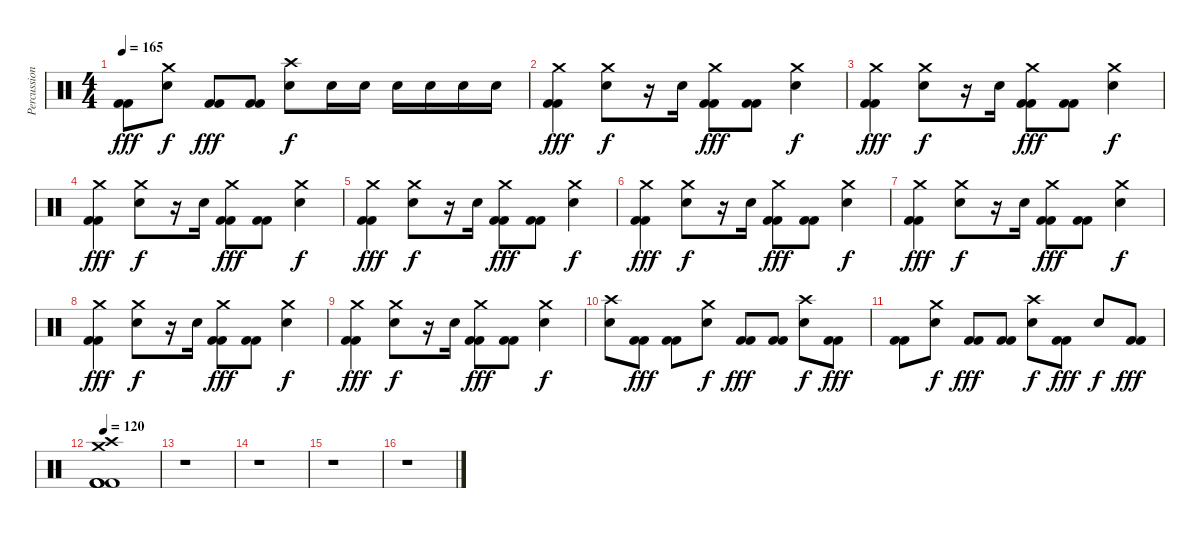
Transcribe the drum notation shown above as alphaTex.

\track ("Percussions" "Percussion") {instrument percussion}
\staff {score}
\articulation defaults
\ts (4 4)
\tempo 165
\clef neutral
\ks c
("Kick (hit) 2" "Kick (hit) 2").8{dy fff} ("Crash medium (hit)" "Electric Snare (hit)").8{dy f} ("Kick (hit) 2" "Kick (hit) 2").8{dy fff} ("Kick (hit) 2" "Kick (hit) 2").8 ("Crash high (hit)" "Electric Snare (hit)").8{dy f} "Electric Snare (hit)".16 "Electric Snare (hit)".16 "Electric Snare (hit)".16 "Electric Snare (hit)".16 "Electric Snare (hit)".16 "Electric Snare (hit)".16 |
("Crash medium (hit)" "Kick (hit) 2" "Kick (hit) 2").4{dy fff} ("Crash medium (hit)" "Electric Snare (hit)").8{dy f} r.16 "Electric Snare (hit)".16 ("Crash medium (hit)" "Kick (hit) 2" "Kick (hit) 2").8{dy fff} ("Kick (hit) 2" "Kick (hit) 2").8 ("Crash medium (hit)" "Electric Snare (hit)").4{dy f} |
("Crash medium (hit)" "Kick (hit) 2" "Kick (hit) 2").4{dy fff} ("Crash medium (hit)" "Electric Snare (hit)").8{dy f} r.16 "Electric Snare (hit)".16 ("Crash medium (hit)" "Kick (hit) 2" "Kick (hit) 2").8{dy fff} ("Kick (hit) 2" "Kick (hit) 2").8 ("Crash medium (hit)" "Electric Snare (hit)").4{dy f} |
("Crash medium (hit)" "Kick (hit) 2" "Kick (hit) 2").4{dy fff} ("Crash medium (hit)" "Electric Snare (hit)").8{dy f} r.16 "Electric Snare (hit)".16 ("Crash medium (hit)" "Kick (hit) 2" "Kick (hit) 2").8{dy fff} ("Kick (hit) 2" "Kick (hit) 2").8 ("Crash medium (hit)" "Electric Snare (hit)").4{dy f} |
("Crash medium (hit)" "Kick (hit) 2" "Kick (hit) 2").4{dy fff} ("Crash medium (hit)" "Electric Snare (hit)").8{dy f} r.16 "Electric Snare (hit)".16 ("Crash medium (hit)" "Kick (hit) 2" "Kick (hit) 2").8{dy fff} ("Kick (hit) 2" "Kick (hit) 2").8 ("Crash medium (hit)" "Electric Snare (hit)").4{dy f} |
("Crash medium (hit)" "Kick (hit) 2" "Kick (hit) 2").4{dy fff} ("Crash medium (hit)" "Electric Snare (hit)").8{dy f} r.16 "Electric Snare (hit)".16 ("Crash medium (hit)" "Kick (hit) 2" "Kick (hit) 2").8{dy fff} ("Kick (hit) 2" "Kick (hit) 2").8 ("Crash medium (hit)" "Electric Snare (hit)").4{dy f} |
("Crash medium (hit)" "Kick (hit) 2" "Kick (hit) 2").4{dy fff} ("Crash medium (hit)" "Electric Snare (hit)").8{dy f} r.16 "Electric Snare (hit)".16 ("Crash medium (hit)" "Kick (hit) 2" "Kick (hit) 2").8{dy fff} ("Kick (hit) 2" "Kick (hit) 2").8 ("Crash medium (hit)" "Electric Snare (hit)").4{dy f} |
("Crash medium (hit)" "Kick (hit) 2" "Kick (hit) 2").4{dy fff} ("Crash medium (hit)" "Electric Snare (hit)").8{dy f} r.16 "Electric Snare (hit)".16 ("Crash medium (hit)" "Kick (hit) 2" "Kick (hit) 2").8{dy fff} ("Kick (hit) 2" "Kick (hit) 2").8 ("Crash medium (hit)" "Electric Snare (hit)").4{dy f} |
("Crash medium (hit)" "Kick (hit) 2" "Kick (hit) 2").4{dy fff} ("Crash medium (hit)" "Electric Snare (hit)").8{dy f} r.16 "Electric Snare (hit)".16 ("Crash medium (hit)" "Kick (hit) 2" "Kick (hit) 2").8{dy fff} ("Kick (hit) 2" "Kick (hit) 2").8 ("Crash medium (hit)" "Electric Snare (hit)").4{dy f} |
("Crash high (hit)" "Electric Snare (hit)").8 ("Kick (hit) 2" "Kick (hit) 2").8{dy fff} ("Kick (hit) 2" "Kick (hit) 2").8 ("Crash medium (hit)" "Electric Snare (hit)").8{dy f} ("Kick (hit) 2" "Kick (hit) 2").8{dy fff} ("Kick (hit) 2" "Kick (hit) 2").8 ("Crash high (hit)" "Electric Snare (hit)").8{dy f} ("Kick (hit) 2" "Kick (hit) 2").8{dy fff} |
("Kick (hit) 2" "Kick (hit) 2").8 ("Crash medium (hit)" "Electric Snare (hit)").8{dy f} ("Kick (hit) 2" "Kick (hit) 2").8{dy fff} ("Kick (hit) 2" "Kick (hit) 2").8 ("Crash high (hit)" "Electric Snare (hit)").8{dy f} ("Kick (hit) 2" "Kick (hit) 2").8{dy fff} "Electric Snare (hit)".8{dy f} ("Kick (hit) 2" "Kick (hit) 2").8{dy fff} |
\tempo 120
("Crash medium (hit)" "Crash high (hit)" "Kick (hit) 2" "Kick (hit) 2" "Kick (hit) 2" "Kick (hit) 2").1 |
r.1 |
r.1 |
r.1 |
r.1
